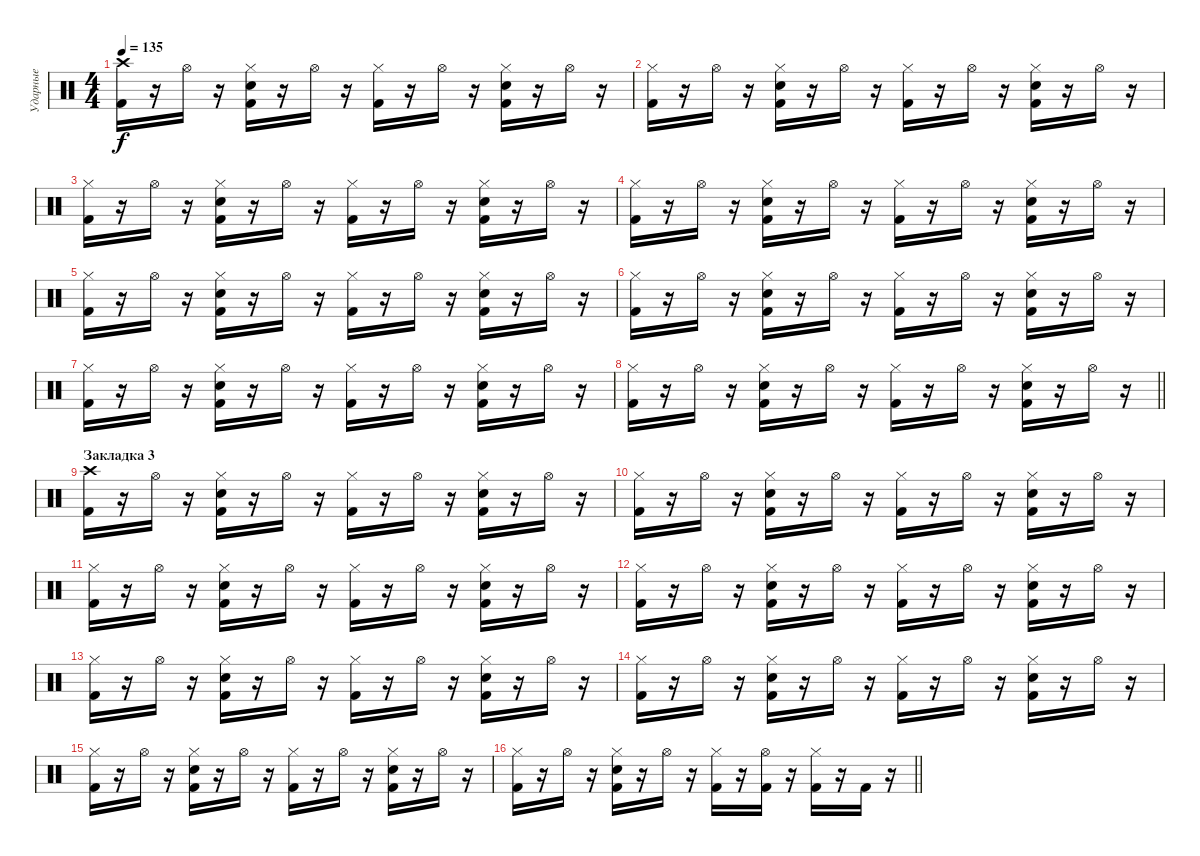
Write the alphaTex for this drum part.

\track ("Ударные" "Ударные") {instrument percussion}
\staff {score}
\articulation defaults
\ts (4 4)
\tempo 135
\clef neutral
\ks c
("Crash high (hit)" "Kick (hit) 2").16{dy f} r.16 "Hi-Hat (open)".16 r.16 ("Hi-Hat (closed)" "Electric Snare (hit)" "Kick (hit) 2").16 r.16 "Hi-Hat (open)".16 r.16 ("Hi-Hat (closed)" "Kick (hit) 2").16 r.16 "Hi-Hat (open)".16 r.16 ("Hi-Hat (closed)" "Electric Snare (hit)" "Kick (hit) 2").16 r.16 "Hi-Hat (open)".16 r.16 |
("Hi-Hat (closed)" "Kick (hit) 2").16 r.16 "Hi-Hat (open)".16 r.16 ("Hi-Hat (closed)" "Electric Snare (hit)" "Kick (hit) 2").16 r.16 "Hi-Hat (open)".16 r.16 ("Hi-Hat (closed)" "Kick (hit) 2").16 r.16 "Hi-Hat (open)".16 r.16 ("Hi-Hat (closed)" "Electric Snare (hit)" "Kick (hit) 2").16 r.16 "Hi-Hat (open)".16 r.16 |
("Hi-Hat (closed)" "Kick (hit) 2").16 r.16 "Hi-Hat (open)".16 r.16 ("Hi-Hat (closed)" "Electric Snare (hit)" "Kick (hit) 2").16 r.16 "Hi-Hat (open)".16 r.16 ("Hi-Hat (closed)" "Kick (hit) 2").16 r.16 "Hi-Hat (open)".16 r.16 ("Hi-Hat (closed)" "Electric Snare (hit)" "Kick (hit) 2").16 r.16 "Hi-Hat (open)".16 r.16 |
("Hi-Hat (closed)" "Kick (hit) 2").16 r.16 "Hi-Hat (open)".16 r.16 ("Hi-Hat (closed)" "Electric Snare (hit)" "Kick (hit) 2").16 r.16 "Hi-Hat (open)".16 r.16 ("Hi-Hat (closed)" "Kick (hit) 2").16 r.16 "Hi-Hat (open)".16 r.16 ("Hi-Hat (closed)" "Electric Snare (hit)" "Kick (hit) 2").16 r.16 "Hi-Hat (open)".16 r.16 |
("Hi-Hat (closed)" "Kick (hit) 2").16 r.16 "Hi-Hat (open)".16 r.16 ("Hi-Hat (closed)" "Electric Snare (hit)" "Kick (hit) 2").16 r.16 "Hi-Hat (open)".16 r.16 ("Hi-Hat (closed)" "Kick (hit) 2").16 r.16 "Hi-Hat (open)".16 r.16 ("Hi-Hat (closed)" "Electric Snare (hit)" "Kick (hit) 2").16 r.16 "Hi-Hat (open)".16 r.16 |
("Hi-Hat (closed)" "Kick (hit) 2").16 r.16 "Hi-Hat (open)".16 r.16 ("Hi-Hat (closed)" "Electric Snare (hit)" "Kick (hit) 2").16 r.16 "Hi-Hat (open)".16 r.16 ("Hi-Hat (closed)" "Kick (hit) 2").16 r.16 "Hi-Hat (open)".16 r.16 ("Hi-Hat (closed)" "Electric Snare (hit)" "Kick (hit) 2").16 r.16 "Hi-Hat (open)".16 r.16 |
("Hi-Hat (closed)" "Kick (hit) 2").16 r.16 "Hi-Hat (open)".16 r.16 ("Hi-Hat (closed)" "Electric Snare (hit)" "Kick (hit) 2").16 r.16 "Hi-Hat (open)".16 r.16 ("Hi-Hat (closed)" "Kick (hit) 2").16 r.16 "Hi-Hat (open)".16 r.16 ("Hi-Hat (closed)" "Electric Snare (hit)" "Kick (hit) 2").16 r.16 "Hi-Hat (open)".16 r.16 |
\barLineRight lightlight
("Hi-Hat (closed)" "Kick (hit) 2").16 r.16 "Hi-Hat (open)".16 r.16 ("Hi-Hat (closed)" "Electric Snare (hit)" "Kick (hit) 2").16 r.16 "Hi-Hat (open)".16 r.16 ("Hi-Hat (closed)" "Kick (hit) 2").16 r.16 "Hi-Hat (open)".16 r.16 ("Hi-Hat (closed)" "Electric Snare (hit)" "Kick (hit) 2").16 r.16 "Hi-Hat (open)".16 r.16 |
\section ("" "Закладка 3")
("Crash high (hit)" "Kick (hit) 2").16 r.16 "Hi-Hat (open)".16 r.16 ("Hi-Hat (closed)" "Electric Snare (hit)" "Kick (hit) 2").16 r.16 "Hi-Hat (open)".16 r.16 ("Hi-Hat (closed)" "Kick (hit) 2").16 r.16 "Hi-Hat (open)".16 r.16 ("Hi-Hat (closed)" "Electric Snare (hit)" "Kick (hit) 2").16 r.16 "Hi-Hat (open)".16 r.16 |
("Hi-Hat (closed)" "Kick (hit) 2").16 r.16 "Hi-Hat (open)".16 r.16 ("Hi-Hat (closed)" "Electric Snare (hit)" "Kick (hit) 2").16 r.16 "Hi-Hat (open)".16 r.16 ("Hi-Hat (closed)" "Kick (hit) 2").16 r.16 "Hi-Hat (open)".16 r.16 ("Hi-Hat (closed)" "Electric Snare (hit)" "Kick (hit) 2").16 r.16 "Hi-Hat (open)".16 r.16 |
("Hi-Hat (closed)" "Kick (hit) 2").16 r.16 "Hi-Hat (open)".16 r.16 ("Hi-Hat (closed)" "Electric Snare (hit)" "Kick (hit) 2").16 r.16 "Hi-Hat (open)".16 r.16 ("Hi-Hat (closed)" "Kick (hit) 2").16 r.16 "Hi-Hat (open)".16 r.16 ("Hi-Hat (closed)" "Electric Snare (hit)" "Kick (hit) 2").16 r.16 "Hi-Hat (open)".16 r.16 |
("Hi-Hat (closed)" "Kick (hit) 2").16 r.16 "Hi-Hat (open)".16 r.16 ("Hi-Hat (closed)" "Electric Snare (hit)" "Kick (hit) 2").16 r.16 "Hi-Hat (open)".16 r.16 ("Hi-Hat (closed)" "Kick (hit) 2").16 r.16 "Hi-Hat (open)".16 r.16 ("Hi-Hat (closed)" "Electric Snare (hit)" "Kick (hit) 2").16 r.16 "Hi-Hat (open)".16 r.16 |
("Hi-Hat (closed)" "Kick (hit) 2").16 r.16 "Hi-Hat (open)".16 r.16 ("Hi-Hat (closed)" "Electric Snare (hit)" "Kick (hit) 2").16 r.16 "Hi-Hat (open)".16 r.16 ("Hi-Hat (closed)" "Kick (hit) 2").16 r.16 "Hi-Hat (open)".16 r.16 ("Hi-Hat (closed)" "Electric Snare (hit)" "Kick (hit) 2").16 r.16 "Hi-Hat (open)".16 r.16 |
("Hi-Hat (closed)" "Kick (hit) 2").16 r.16 "Hi-Hat (open)".16 r.16 ("Hi-Hat (closed)" "Electric Snare (hit)" "Kick (hit) 2").16 r.16 "Hi-Hat (open)".16 r.16 ("Hi-Hat (closed)" "Kick (hit) 2").16 r.16 "Hi-Hat (open)".16 r.16 ("Hi-Hat (closed)" "Electric Snare (hit)" "Kick (hit) 2").16 r.16 "Hi-Hat (open)".16 r.16 |
("Hi-Hat (closed)" "Kick (hit) 2").16 r.16 "Hi-Hat (open)".16 r.16 ("Hi-Hat (closed)" "Electric Snare (hit)" "Kick (hit) 2").16 r.16 "Hi-Hat (open)".16 r.16 ("Hi-Hat (closed)" "Kick (hit) 2").16 r.16 "Hi-Hat (open)".16 r.16 ("Hi-Hat (closed)" "Electric Snare (hit)" "Kick (hit) 2").16 r.16 "Hi-Hat (open)".16 r.16 |
\barLineRight lightlight
("Hi-Hat (closed)" "Kick (hit) 2").16 r.16 "Hi-Hat (open)".16 r.16 ("Hi-Hat (closed)" "Electric Snare (hit)" "Kick (hit) 2").16 r.16 "Hi-Hat (open)".16 r.16 ("Hi-Hat (closed)" "Kick (hit) 2").16 r.16 ("Hi-Hat (open)" "Kick (hit) 2").16 r.16 ("Hi-Hat (closed)" "Kick (hit) 2").16 r.16 "Kick (hit) 2".16 r.16
